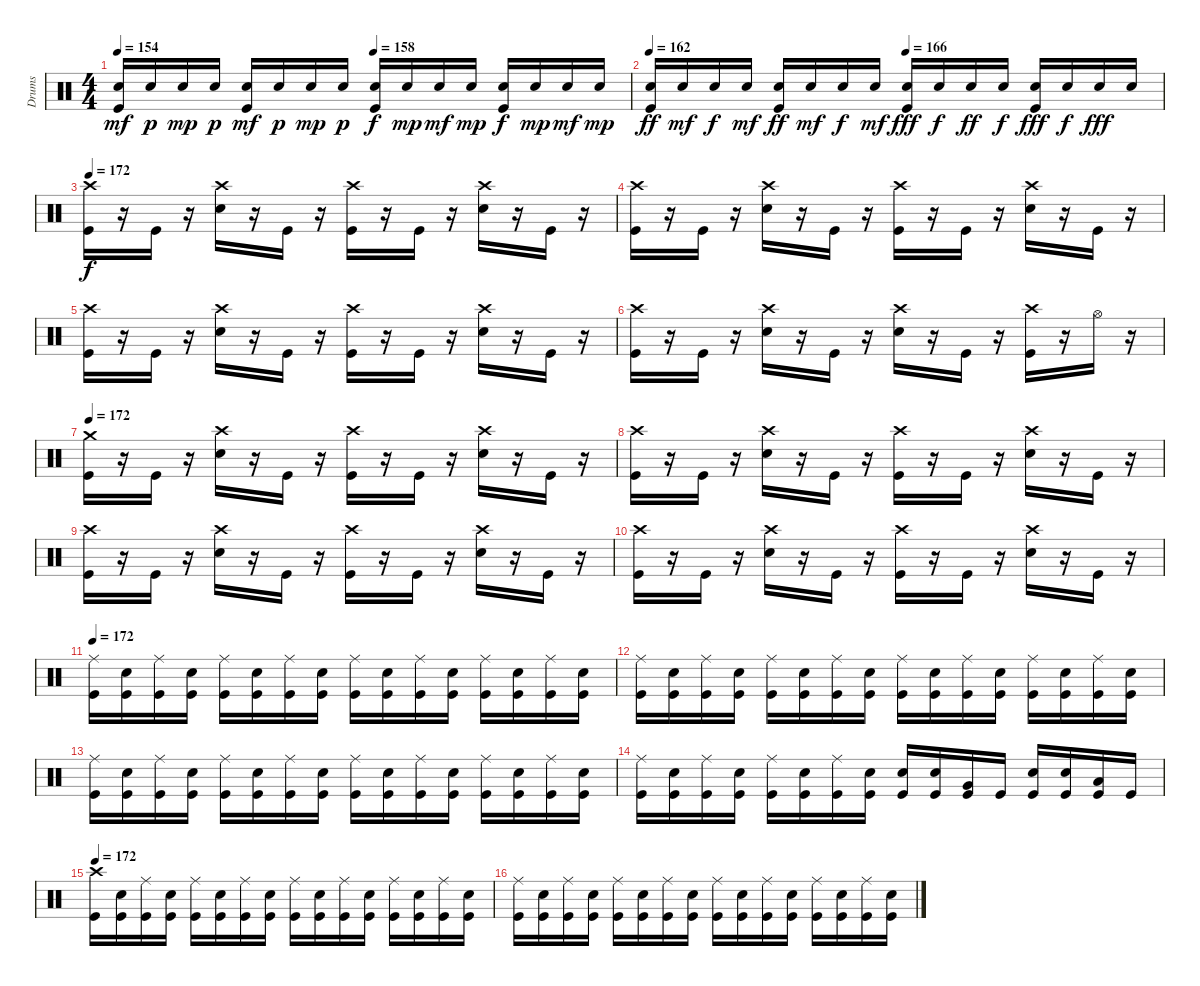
\track ("Drums" "Drums") {instrument percussion}
\staff {score}
\articulation defaults
\ts (4 4)
\tempo 154
\tempo (158 0.5)
\clef neutral
\ks c
("Electric Snare (hit)" "Kick (hit)").16{dy mf} "Electric Snare (hit)".16{dy p} "Electric Snare (hit)".16{dy mp} "Electric Snare (hit)".16{dy p} ("Electric Snare (hit)" "Kick (hit)").16{dy mf} "Electric Snare (hit)".16{dy p} "Electric Snare (hit)".16{dy mp} "Electric Snare (hit)".16{dy p} ("Electric Snare (hit)" "Kick (hit)").16{dy f} "Electric Snare (hit)".16{dy mp} "Electric Snare (hit)".16{dy mf} "Electric Snare (hit)".16{dy mp} ("Electric Snare (hit)" "Kick (hit)").16{dy f} "Electric Snare (hit)".16{dy mp} "Electric Snare (hit)".16{dy mf} "Electric Snare (hit)".16{dy mp} |
\tempo 162
\tempo (166 0.5)
("Electric Snare (hit)" "Kick (hit)").16{dy ff} "Electric Snare (hit)".16{dy mf} "Electric Snare (hit)".16{dy f} "Electric Snare (hit)".16{dy mf} ("Electric Snare (hit)" "Kick (hit)").16{dy ff} "Electric Snare (hit)".16{dy mf} "Electric Snare (hit)".16{dy f} "Electric Snare (hit)".16{dy mf} ("Electric Snare (hit)" "Kick (hit)").16{dy fff} "Electric Snare (hit)".16{dy f} "Electric Snare (hit)".16{dy ff} "Electric Snare (hit)".16{dy f} ("Electric Snare (hit)" "Kick (hit)").16{dy fff} "Electric Snare (hit)".16{dy f} "Electric Snare (hit)".16{dy fff} "Electric Snare (hit)".16 |
\tempo 172
("Kick (hit)" "Crash high (hit)").16{dy f} r.16 "Kick (hit)".16 r.16 ("Electric Snare (hit)" "Crash high (hit)").16 r.16 "Kick (hit)".16 r.16 ("Kick (hit)" "Crash high (hit)").16 r.16 "Kick (hit)".16 r.16 ("Electric Snare (hit)" "Crash high (hit)").16 r.16 "Kick (hit)".16 r.16 |
("Kick (hit)" "Crash high (hit)").16 r.16 "Kick (hit)".16 r.16 ("Electric Snare (hit)" "Crash high (hit)").16 r.16 "Kick (hit)".16 r.16 ("Kick (hit)" "Crash high (hit)").16 r.16 "Kick (hit)".16 r.16 ("Electric Snare (hit)" "Crash high (hit)").16 r.16 "Kick (hit)".16 r.16 |
("Kick (hit)" "Crash high (hit)").16 r.16 "Kick (hit)".16 r.16 ("Electric Snare (hit)" "Crash high (hit)").16 r.16 "Kick (hit)".16 r.16 ("Kick (hit)" "Crash high (hit)").16 r.16 "Kick (hit)".16 r.16 ("Electric Snare (hit)" "Crash high (hit)").16 r.16 "Kick (hit)".16 r.16 |
("Kick (hit)" "Crash high (hit)").16 r.16 "Kick (hit)".16 r.16 ("Electric Snare (hit)" "Crash high (hit)").16 r.16 "Kick (hit)".16 r.16 ("Electric Snare (hit)" "Crash high (hit)").16 r.16 "Kick (hit)".16 r.16 ("Kick (hit)" "Crash high (hit)").16 r.16 "Hi-Hat (open)".16 r.16 |
\tempo 172
("Kick (hit)" "Crash medium (hit)").16 r.16 "Kick (hit)".16 r.16 ("Electric Snare (hit)" "Crash high (hit)").16 r.16 "Kick (hit)".16 r.16 ("Kick (hit)" "Crash high (hit)").16 r.16 "Kick (hit)".16 r.16 ("Electric Snare (hit)" "Crash high (hit)").16 r.16 "Kick (hit)".16 r.16 |
("Kick (hit)" "Crash high (hit)").16 r.16 "Kick (hit)".16 r.16 ("Electric Snare (hit)" "Crash high (hit)").16 r.16 "Kick (hit)".16 r.16 ("Kick (hit)" "Crash high (hit)").16 r.16 "Kick (hit)".16 r.16 ("Electric Snare (hit)" "Crash high (hit)").16 r.16 "Kick (hit)".16 r.16 |
("Kick (hit)" "Crash high (hit)").16 r.16 "Kick (hit)".16 r.16 ("Electric Snare (hit)" "Crash high (hit)").16 r.16 "Kick (hit)".16 r.16 ("Kick (hit)" "Crash high (hit)").16 r.16 "Kick (hit)".16 r.16 ("Electric Snare (hit)" "Crash high (hit)").16 r.16 "Kick (hit)".16 r.16 |
("Kick (hit)" "Crash high (hit)").16 r.16 "Kick (hit)".16 r.16 ("Electric Snare (hit)" "Crash high (hit)").16 r.16 "Kick (hit)".16 r.16 ("Kick (hit)" "Crash high (hit)").16 r.16 "Kick (hit)".16 r.16 ("Electric Snare (hit)" "Crash high (hit)").16 r.16 "Kick (hit)".16 r.16 |
\tempo 172
("Ride (middle)" "Kick (hit)").16 ("Electric Snare (hit)" "Kick (hit)").16 ("Ride (middle)" "Kick (hit)").16 ("Electric Snare (hit)" "Kick (hit)").16 ("Ride (middle)" "Kick (hit)").16 ("Electric Snare (hit)" "Kick (hit)").16 ("Ride (middle)" "Kick (hit)").16 ("Electric Snare (hit)" "Kick (hit)").16 ("Ride (middle)" "Kick (hit)").16 ("Electric Snare (hit)" "Kick (hit)").16 ("Ride (middle)" "Kick (hit)").16 ("Electric Snare (hit)" "Kick (hit)").16 ("Ride (middle)" "Kick (hit)").16 ("Electric Snare (hit)" "Kick (hit)").16 ("Ride (middle)" "Kick (hit)").16 ("Electric Snare (hit)" "Kick (hit)").16 |
("Ride (middle)" "Kick (hit)").16 ("Electric Snare (hit)" "Kick (hit)").16 ("Ride (middle)" "Kick (hit)").16 ("Electric Snare (hit)" "Kick (hit)").16 ("Ride (middle)" "Kick (hit)").16 ("Electric Snare (hit)" "Kick (hit)").16 ("Ride (middle)" "Kick (hit)").16 ("Electric Snare (hit)" "Kick (hit)").16 ("Ride (middle)" "Kick (hit)").16 ("Electric Snare (hit)" "Kick (hit)").16 ("Ride (middle)" "Kick (hit)").16 ("Electric Snare (hit)" "Kick (hit)").16 ("Ride (middle)" "Kick (hit)").16 ("Electric Snare (hit)" "Kick (hit)").16 ("Ride (middle)" "Kick (hit)").16 ("Electric Snare (hit)" "Kick (hit)").16 |
("Ride (middle)" "Kick (hit)").16 ("Electric Snare (hit)" "Kick (hit)").16 ("Ride (middle)" "Kick (hit)").16 ("Electric Snare (hit)" "Kick (hit)").16 ("Ride (middle)" "Kick (hit)").16 ("Electric Snare (hit)" "Kick (hit)").16 ("Ride (middle)" "Kick (hit)").16 ("Electric Snare (hit)" "Kick (hit)").16 ("Ride (middle)" "Kick (hit)").16 ("Electric Snare (hit)" "Kick (hit)").16 ("Ride (middle)" "Kick (hit)").16 ("Electric Snare (hit)" "Kick (hit)").16 ("Ride (middle)" "Kick (hit)").16 ("Electric Snare (hit)" "Kick (hit)").16 ("Ride (middle)" "Kick (hit)").16 ("Electric Snare (hit)" "Kick (hit)").16 |
("Ride (middle)" "Kick (hit)").16 ("Electric Snare (hit)" "Kick (hit)").16 ("Ride (middle)" "Kick (hit)").16 ("Electric Snare (hit)" "Kick (hit)").16 ("Ride (middle)" "Kick (hit)").16 ("Electric Snare (hit)" "Kick (hit)").16 ("Ride (middle)" "Kick (hit)").16 ("Electric Snare (hit)" "Kick (hit)").16 ("Electric Snare (hit)" "Kick (hit)").16 ("Electric Snare (hit)" "Kick (hit)").16 ("Very Low Tom (hit)" "Kick (hit)").16 "Kick (hit)".16 ("Electric Snare (hit)" "Kick (hit)").16 ("Electric Snare (hit)" "Kick (hit)").16 ("Low Floor Tom (hit)" "Kick (hit)").16 "Kick (hit)".16 |
\tempo 172
("Crash high (hit)" "Kick (hit)").16 ("Electric Snare (hit)" "Kick (hit)").16 ("Ride (middle)" "Kick (hit)").16 ("Electric Snare (hit)" "Kick (hit)").16 ("Ride (middle)" "Kick (hit)").16 ("Electric Snare (hit)" "Kick (hit)").16 ("Ride (middle)" "Kick (hit)").16 ("Electric Snare (hit)" "Kick (hit)").16 ("Ride (middle)" "Kick (hit)").16 ("Electric Snare (hit)" "Kick (hit)").16 ("Ride (middle)" "Kick (hit)").16 ("Electric Snare (hit)" "Kick (hit)").16 ("Ride (middle)" "Kick (hit)").16 ("Electric Snare (hit)" "Kick (hit)").16 ("Ride (middle)" "Kick (hit)").16 ("Electric Snare (hit)" "Kick (hit)").16 |
("Ride (middle)" "Kick (hit)").16 ("Electric Snare (hit)" "Kick (hit)").16 ("Ride (middle)" "Kick (hit)").16 ("Electric Snare (hit)" "Kick (hit)").16 ("Ride (middle)" "Kick (hit)").16 ("Electric Snare (hit)" "Kick (hit)").16 ("Ride (middle)" "Kick (hit)").16 ("Electric Snare (hit)" "Kick (hit)").16 ("Ride (middle)" "Kick (hit)").16 ("Electric Snare (hit)" "Kick (hit)").16 ("Ride (middle)" "Kick (hit)").16 ("Electric Snare (hit)" "Kick (hit)").16 ("Ride (middle)" "Kick (hit)").16 ("Electric Snare (hit)" "Kick (hit)").16 ("Ride (middle)" "Kick (hit)").16 ("Electric Snare (hit)" "Kick (hit)").16
